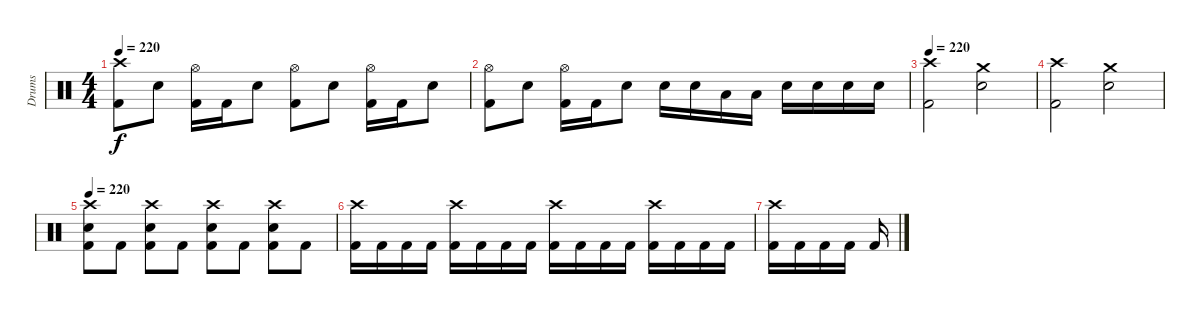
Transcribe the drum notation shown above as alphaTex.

\track ("Drums" "Drums") {instrument percussion}
\staff {score}
\articulation defaults
\ts (4 4)
\tempo 220
\clef neutral
\ks c
("Crash high (hit)" "Kick (hit) 2").8{dy f} "Electric Snare (hit)".8 ("Hi-Hat (open)" "Kick (hit) 2").16 "Kick (hit) 2".16 "Electric Snare (hit)".8 ("Hi-Hat (open)" "Kick (hit) 2").8 "Electric Snare (hit)".8 ("Hi-Hat (open)" "Kick (hit) 2").16 "Kick (hit) 2".16 "Electric Snare (hit)".8 |
("Hi-Hat (open)" "Kick (hit) 2").8 "Electric Snare (hit)".8 ("Hi-Hat (open)" "Kick (hit) 2").16 "Kick (hit) 2".16 "Electric Snare (hit)".8 "Electric Snare (hit)".16 "Electric Snare (hit)".16 "Low Tom (hit)".16 "Low Tom (hit)".16 "Electric Snare (hit)".16 "Electric Snare (hit)".16 "Electric Snare (hit)".16 "Electric Snare (hit)".16 |
\tempo 220
("Kick (hit) 2" "Crash high (hit)").2 ("Electric Snare (hit)" "Crash medium (hit)").2 |
("Kick (hit) 2" "Crash high (hit)").2 ("Electric Snare (hit)" "Crash medium (hit)").2 |
\tempo 220
("Kick (hit) 2" "Crash high (hit)" "Electric Snare (hit)").8 "Kick (hit) 2".8 ("Kick (hit) 2" "Crash high (hit)" "Electric Snare (hit)").8 "Kick (hit) 2".8 ("Kick (hit) 2" "Crash high (hit)" "Electric Snare (hit)").8 "Kick (hit) 2".8 ("Kick (hit) 2" "Crash high (hit)" "Electric Snare (hit)").8 "Kick (hit) 2".8 |
("Kick (hit) 2" "Crash high (hit)").16 "Kick (hit) 2".16 "Kick (hit) 2".16 "Kick (hit) 2".16 ("Kick (hit) 2" "Crash high (hit)").16 "Kick (hit) 2".16 "Kick (hit) 2".16 "Kick (hit) 2".16 ("Kick (hit) 2" "Crash high (hit)").16 "Kick (hit) 2".16 "Kick (hit) 2".16 "Kick (hit) 2".16 ("Kick (hit) 2" "Crash high (hit)").16 "Kick (hit) 2".16 "Kick (hit) 2".16 "Kick (hit) 2".16 |
("Kick (hit) 2" "Crash high (hit)").16 "Kick (hit) 2".16 "Kick (hit) 2".16 "Kick (hit) 2".16 "Kick (hit) 2".16
